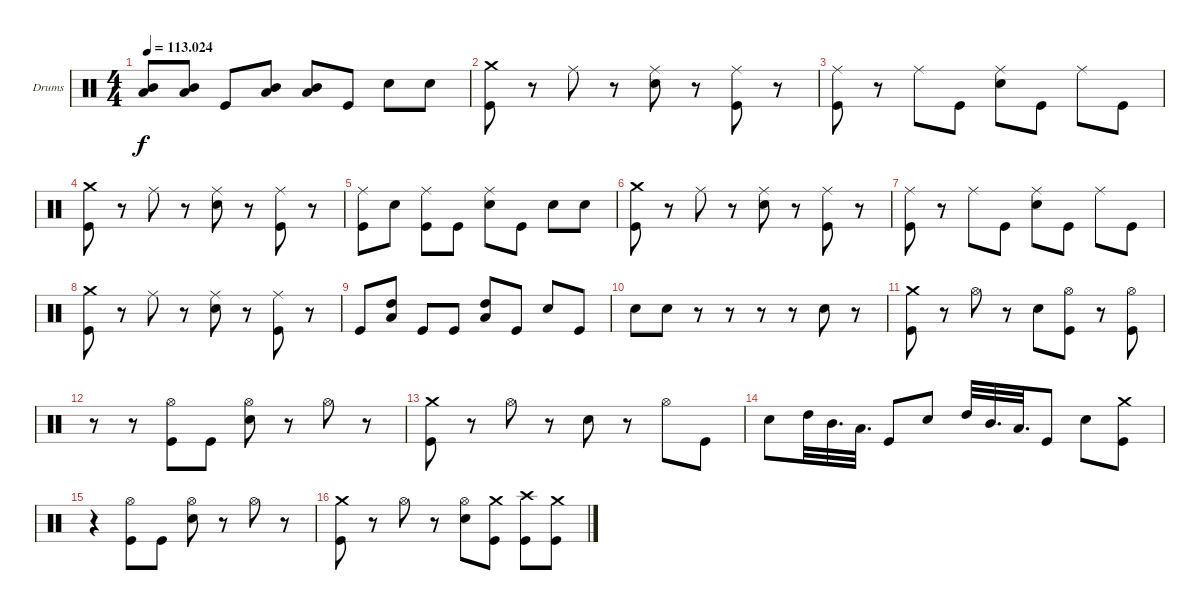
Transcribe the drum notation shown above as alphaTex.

\bracketExtendMode groupsimilarinstruments
\firstSystemTrackNameOrientation horizontal
\otherSystemsTrackNameOrientation horizontal
\track ("Ударные (Кривенков Д)" "Drums") {instrument percussion}
\staff {score}
\articulation defaults
\ts (4 4)
\tempo
113.024
\accidentals auto
\clef neutral
\ottava regular
\simile none
\ks c
("Mid Tom (hit)" "Low Tom (hit)").8{dy f} ("Mid Tom (hit)" "Low Tom (hit)").8 "Kick (hit)".8 ("Mid Tom (hit)" "Low Tom (hit)").8 ("Mid Tom (hit)" "Low Tom (hit)").8 "Kick (hit)".8 "Snare (hit) 2".8 "Snare (hit) 2".8 |
("Crash medium (hit)" "Kick (hit)").8 r.8 "Ride (middle)".8 r.8 ("Ride (middle)" "Snare (hit) 2").8 r.8 ("Ride (middle)" "Kick (hit)").8 r.8 |
("Ride (middle)" "Kick (hit)").8 r.8 "Ride (middle)".8 "Kick (hit)".8 ("Ride (middle)" "Snare (hit) 2").8 "Kick (hit)".8 "Ride (middle)".8 "Kick (hit)".8 |
("Crash medium (hit)" "Kick (hit)").8 r.8 "Ride (middle)".8 r.8 ("Ride (middle)" "Snare (hit) 2").8 r.8 ("Ride (middle)" "Kick (hit)").8 r.8 |
("Ride (middle)" "Kick (hit)").8 "Snare (hit) 2".8 ("Ride (middle)" "Kick (hit)").8 "Kick (hit)".8 ("Ride (middle)" "Snare (hit) 2").8 "Kick (hit)".8 "Snare (hit) 2".8 "Snare (hit) 2".8 |
("Crash medium (hit)" "Kick (hit)").8 r.8 "Ride (middle)".8 r.8 ("Ride (middle)" "Snare (hit) 2").8 r.8 ("Ride (middle)" "Kick (hit)").8 r.8 |
("Ride (middle)" "Kick (hit)").8 r.8 "Ride (middle)".8 "Kick (hit)".8 ("Ride (middle)" "Snare (hit) 2").8 "Kick (hit)".8 "Ride (middle)".8 "Kick (hit)".8 |
("Crash medium (hit)" "Kick (hit)").8 r.8 "Ride (middle)".8 r.8 ("Ride (middle)" "Snare (hit) 2").8 r.8 ("Ride (middle)" "Kick (hit)").8 r.8 |
"Kick (hit)".8 ("High Tom (hit)" "Low Tom (hit)").8 "Kick (hit)".8 "Kick (hit)".8 ("High Tom (hit)" "Low Tom (hit)").8 "Kick (hit)".8 "Snare (hit) 2".8 "Kick (hit)".8 |
"Snare (hit) 2".8 "Snare (hit) 2".8 r.8 r.8 r.8 r.8 "Snare (hit) 2".8 r.8 |
("Crash medium (hit)" "Kick (hit)").8 r.8 "Hi-Hat (open)".8 r.8 "Snare (hit) 2".8 ("Hi-Hat (open)" "Kick (hit)").8 r.8 ("Hi-Hat (open)" "Kick (hit)").8 |
r.8 r.8 ("Hi-Hat (open)" "Kick (hit)").8 "Kick (hit)".8 ("Hi-Hat (open)" "Snare (hit) 2").8 r.8 "Hi-Hat (open)".8 r.8 |
("Crash medium (hit)" "Kick (hit)").8 r.8 "Hi-Hat (open)".8 r.8 "Snare (hit) 2".8 r.8 "Hi-Hat (open)".8 "Kick (hit)".8 |
"Snare (hit) 2".8 "High Tom (hit)".32 "Mid Tom (hit)".32{d} "Low Tom (hit)".32{d} "Kick (hit)".8 "Snare (hit) 2".8 "High Tom (hit)".32 "Mid Tom (hit)".32{d} "Low Tom (hit)".32{d} "Kick (hit)".8 "Snare (hit) 2".8 ("Crash medium (hit)" "Kick (hit)").8 |
r.4 ("Hi-Hat (open)" "Kick (hit)").8 "Kick (hit)".8 ("Hi-Hat (open)" "Snare (hit) 2").8 r.8 "Hi-Hat (open)".8 r.8 |
("Crash medium (hit)" "Kick (hit)").8 r.8 "Hi-Hat (open)".8 r.8 ("Hi-Hat (open)" "Snare (hit) 2").8 ("Crash medium (hit)" "Kick (hit)").8 ("Crash high (hit)" "Kick (hit)").8 ("Crash medium (hit)" "Kick (hit)").8
